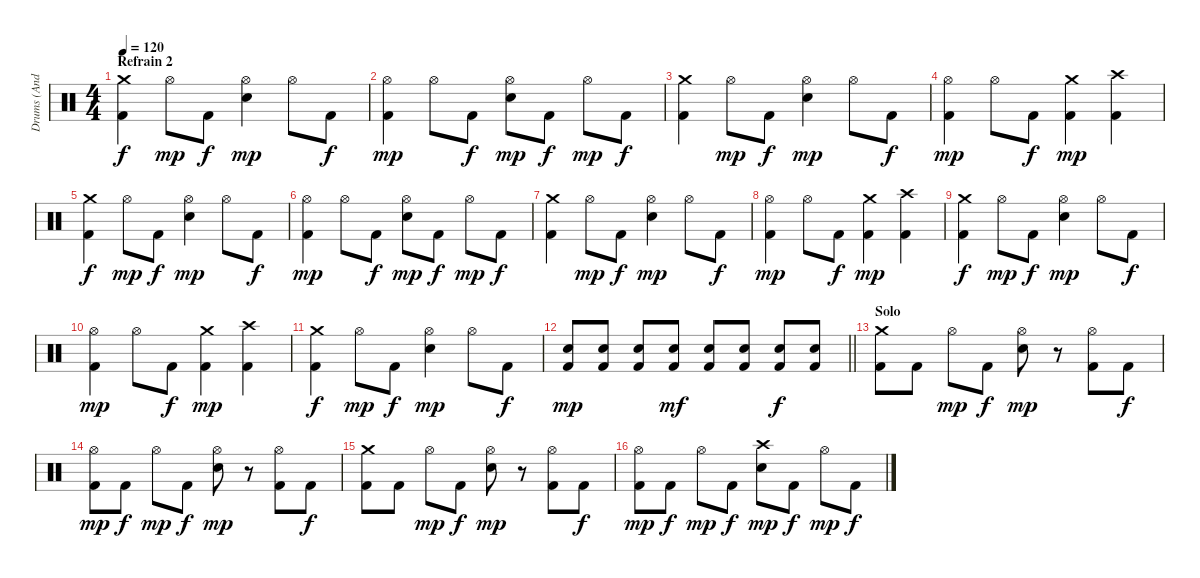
\track ("Drums (Andy C)" "Drums (And") {instrument percussion}
\staff
\articulation defaults
\ts (4 4)
\section ("" "Refrain 2")
\tempo 120
\clef neutral
\ks c
("Crash medium (hit)" "Kick (hit) 2").4{dy f} "Hi-Hat (open)".8{dy mp} "Kick (hit) 2".8{dy f} ("Hi-Hat (open)" "Electric Snare (hit)").4{dy mp} "Hi-Hat (open)".8 "Kick (hit) 2".8{dy f} |
("Hi-Hat (open)" "Kick (hit) 2").4{dy mp} "Hi-Hat (open)".8 "Kick (hit) 2".8{dy f} ("Hi-Hat (open)" "Electric Snare (hit)").8{dy mp} "Kick (hit) 2".8{dy f} "Hi-Hat (open)".8{dy mp} "Kick (hit) 2".8{dy f} |
("Crash medium (hit)" "Kick (hit) 2").4 "Hi-Hat (open)".8{dy mp} "Kick (hit) 2".8{dy f} ("Hi-Hat (open)" "Electric Snare (hit)").4{dy mp} "Hi-Hat (open)".8 "Kick (hit) 2".8{dy f} |
("Hi-Hat (open)" "Kick (hit) 2").4{dy mp} "Hi-Hat (open)".8 "Kick (hit) 2".8{dy f} ("Crash medium (hit)" "Kick (hit) 2").4{dy mp} ("Crash high (hit)" "Kick (hit) 2").4 |
("Crash medium (hit)" "Kick (hit) 2").4{dy f} "Hi-Hat (open)".8{dy mp} "Kick (hit) 2".8{dy f} ("Hi-Hat (open)" "Electric Snare (hit)").4{dy mp} "Hi-Hat (open)".8 "Kick (hit) 2".8{dy f} |
("Hi-Hat (open)" "Kick (hit) 2").4{dy mp} "Hi-Hat (open)".8 "Kick (hit) 2".8{dy f} ("Hi-Hat (open)" "Electric Snare (hit)").8{dy mp} "Kick (hit) 2".8{dy f} "Hi-Hat (open)".8{dy mp} "Kick (hit) 2".8{dy f} |
("Crash medium (hit)" "Kick (hit) 2").4 "Hi-Hat (open)".8{dy mp} "Kick (hit) 2".8{dy f} ("Hi-Hat (open)" "Electric Snare (hit)").4{dy mp} "Hi-Hat (open)".8 "Kick (hit) 2".8{dy f} |
("Hi-Hat (open)" "Kick (hit) 2").4{dy mp} "Hi-Hat (open)".8 "Kick (hit) 2".8{dy f} ("Crash medium (hit)" "Kick (hit) 2").4{dy mp} ("Crash high (hit)" "Kick (hit) 2").4 |
("Crash medium (hit)" "Kick (hit) 2").4{dy f} "Hi-Hat (open)".8{dy mp} "Kick (hit) 2".8{dy f} ("Hi-Hat (open)" "Electric Snare (hit)").4{dy mp} "Hi-Hat (open)".8 "Kick (hit) 2".8{dy f} |
("Hi-Hat (open)" "Kick (hit) 2").4{dy mp} "Hi-Hat (open)".8 "Kick (hit) 2".8{dy f} ("Crash medium (hit)" "Kick (hit) 2").4{dy mp} ("Crash high (hit)" "Kick (hit) 2").4 |
("Crash medium (hit)" "Kick (hit) 2").4{dy f} "Hi-Hat (open)".8{dy mp} "Kick (hit) 2".8{dy f} ("Hi-Hat (open)" "Electric Snare (hit)").4{dy mp} "Hi-Hat (open)".8 "Kick (hit) 2".8{dy f} |
\barLineRight lightlight
("Electric Snare (hit)" "Kick (hit) 2").8{dy mp} ("Electric Snare (hit)" "Kick (hit) 2").8 ("Electric Snare (hit)" "Kick (hit) 2").8 ("Electric Snare (hit)" "Kick (hit) 2").8{dy mf} ("Electric Snare (hit)" "Kick (hit) 2").8 ("Electric Snare (hit)" "Kick (hit) 2").8 ("Electric Snare (hit)" "Kick (hit) 2").8{dy f} ("Electric Snare (hit)" "Kick (hit) 2").8 |
\section ("" "Solo")
("Crash medium (hit)" "Kick (hit) 2").8 "Kick (hit) 2".8 "Hi-Hat (open)".8{dy mp} "Kick (hit) 2".8{dy f} ("Hi-Hat (open)" "Electric Snare (hit)").8{dy mp} r.8 ("Hi-Hat (open)" "Kick (hit) 2").8 "Kick (hit) 2".8{dy f} |
("Hi-Hat (open)" "Kick (hit) 2").8{dy mp} "Kick (hit) 2".8{dy f} "Hi-Hat (open)".8{dy mp} "Kick (hit) 2".8{dy f} ("Hi-Hat (open)" "Electric Snare (hit)").8{dy mp} r.8 ("Hi-Hat (open)" "Kick (hit) 2").8 "Kick (hit) 2".8{dy f} |
("Crash medium (hit)" "Kick (hit) 2").8 "Kick (hit) 2".8 "Hi-Hat (open)".8{dy mp} "Kick (hit) 2".8{dy f} ("Hi-Hat (open)" "Electric Snare (hit)").8{dy mp} r.8 ("Hi-Hat (open)" "Kick (hit) 2").8 "Kick (hit) 2".8{dy f} |
("Hi-Hat (open)" "Kick (hit) 2").8{dy mp} "Kick (hit) 2".8{dy f} "Hi-Hat (open)".8{dy mp} "Kick (hit) 2".8{dy f} ("Crash high (hit)" "Electric Snare (hit)").8{dy mp} "Kick (hit) 2".8{dy f} "Hi-Hat (open)".8{dy mp} "Kick (hit) 2".8{dy f}
